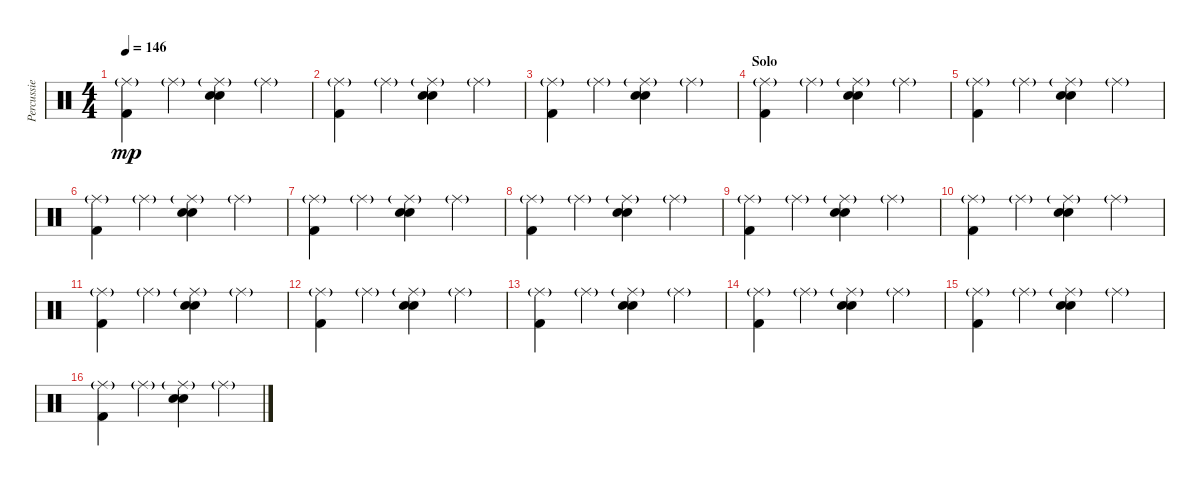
\track ("Percussie" "Percussie") {instrument percussion}
\staff {score}
\articulation defaults
\ts (4 4)
\tempo 146
\clef neutral
\ks c
("Ride (middle)"{g} "Kick (hit) 2").4{dy mp} "Ride (middle)"{g}.4 ("Ride (middle)"{g} "Snare (hit) 2" "Snare (hit) 2").4 "Ride (middle)"{g}.4 |
("Ride (middle)"{g} "Kick (hit) 2").4 "Ride (middle)"{g}.4 ("Ride (middle)"{g} "Snare (hit) 2" "Snare (hit) 2").4 "Ride (middle)"{g}.4 |
("Ride (middle)"{g} "Kick (hit) 2").4 "Ride (middle)"{g}.4 ("Ride (middle)"{g} "Snare (hit) 2" "Snare (hit) 2").4 "Ride (middle)"{g}.4 |
\section ("" "Solo")
("Ride (middle)"{g} "Kick (hit) 2").4 "Ride (middle)"{g}.4 ("Ride (middle)"{g} "Snare (hit) 2" "Snare (hit) 2").4 "Ride (middle)"{g}.4 |
("Ride (middle)"{g} "Kick (hit) 2").4 "Ride (middle)"{g}.4 ("Ride (middle)"{g} "Snare (hit) 2" "Snare (hit) 2").4 "Ride (middle)"{g}.4 |
("Ride (middle)"{g} "Kick (hit) 2").4 "Ride (middle)"{g}.4 ("Ride (middle)"{g} "Snare (hit) 2" "Snare (hit) 2").4 "Ride (middle)"{g}.4 |
("Ride (middle)"{g} "Kick (hit) 2").4 "Ride (middle)"{g}.4 ("Ride (middle)"{g} "Snare (hit) 2" "Snare (hit) 2").4 "Ride (middle)"{g}.4 |
("Ride (middle)"{g} "Kick (hit) 2").4 "Ride (middle)"{g}.4 ("Ride (middle)"{g} "Snare (hit) 2" "Snare (hit) 2").4 "Ride (middle)"{g}.4 |
("Ride (middle)"{g} "Kick (hit) 2").4 "Ride (middle)"{g}.4 ("Ride (middle)"{g} "Snare (hit) 2" "Snare (hit) 2").4 "Ride (middle)"{g}.4 |
("Ride (middle)"{g} "Kick (hit) 2").4 "Ride (middle)"{g}.4 ("Ride (middle)"{g} "Snare (hit) 2" "Snare (hit) 2").4 "Ride (middle)"{g}.4 |
("Ride (middle)"{g} "Kick (hit) 2").4 "Ride (middle)"{g}.4 ("Ride (middle)"{g} "Snare (hit) 2" "Snare (hit) 2").4 "Ride (middle)"{g}.4 |
("Ride (middle)"{g} "Kick (hit) 2").4 "Ride (middle)"{g}.4 ("Ride (middle)"{g} "Snare (hit) 2" "Snare (hit) 2").4 "Ride (middle)"{g}.4 |
("Ride (middle)"{g} "Kick (hit) 2").4 "Ride (middle)"{g}.4 ("Ride (middle)"{g} "Snare (hit) 2" "Snare (hit) 2").4 "Ride (middle)"{g}.4 |
("Ride (middle)"{g} "Kick (hit) 2").4 "Ride (middle)"{g}.4 ("Ride (middle)"{g} "Snare (hit) 2" "Snare (hit) 2").4 "Ride (middle)"{g}.4 |
("Ride (middle)"{g} "Kick (hit) 2").4 "Ride (middle)"{g}.4 ("Ride (middle)"{g} "Snare (hit) 2" "Snare (hit) 2").4 "Ride (middle)"{g}.4 |
("Ride (middle)"{g} "Kick (hit) 2").4 "Ride (middle)"{g}.4 ("Ride (middle)"{g} "Snare (hit) 2" "Snare (hit) 2").4 "Ride (middle)"{g}.4
